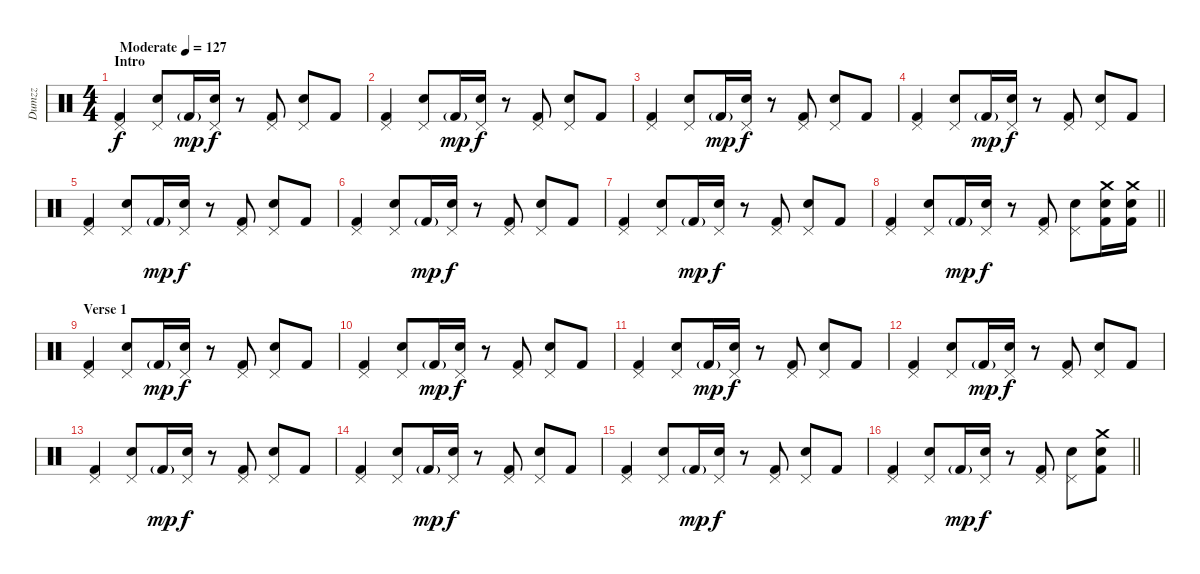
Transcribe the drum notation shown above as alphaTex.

\track ("Dumzz" "Dumzz") {instrument percussion}
\staff {score}
\articulation defaults
\ts (4 4)
\section ("" "Intro")
\tempo (127 "Moderate")
\clef neutral
\ks c
("Pedal Hi-Hat (hit)" "Kick (hit) 2").4{dy f} ("Pedal Hi-Hat (hit)" "Snare (hit) 2").8 "Kick (hit) 2"{g}.16{dy mp} ("Pedal Hi-Hat (hit)" "Snare (hit) 2").16{dy f} r.8 ("Pedal Hi-Hat (hit)" "Kick (hit) 2").8 ("Pedal Hi-Hat (hit)" "Snare (hit) 2").8 "Kick (hit) 2".8 |
("Pedal Hi-Hat (hit)" "Kick (hit) 2").4 ("Pedal Hi-Hat (hit)" "Snare (hit) 2").8 "Kick (hit) 2"{g}.16{dy mp} ("Pedal Hi-Hat (hit)" "Snare (hit) 2").16{dy f} r.8 ("Pedal Hi-Hat (hit)" "Kick (hit) 2").8 ("Pedal Hi-Hat (hit)" "Snare (hit) 2").8 "Kick (hit) 2".8 |
("Pedal Hi-Hat (hit)" "Kick (hit) 2").4 ("Pedal Hi-Hat (hit)" "Snare (hit) 2").8 "Kick (hit) 2"{g}.16{dy mp} ("Pedal Hi-Hat (hit)" "Snare (hit) 2").16{dy f} r.8 ("Pedal Hi-Hat (hit)" "Kick (hit) 2").8 ("Pedal Hi-Hat (hit)" "Snare (hit) 2").8 "Kick (hit) 2".8 |
("Pedal Hi-Hat (hit)" "Kick (hit) 2").4 ("Pedal Hi-Hat (hit)" "Snare (hit) 2").8 "Kick (hit) 2"{g}.16{dy mp} ("Pedal Hi-Hat (hit)" "Snare (hit) 2").16{dy f} r.8 ("Pedal Hi-Hat (hit)" "Kick (hit) 2").8 ("Pedal Hi-Hat (hit)" "Snare (hit) 2").8 "Kick (hit) 2".8 |
("Pedal Hi-Hat (hit)" "Kick (hit) 2").4 ("Pedal Hi-Hat (hit)" "Snare (hit) 2").8 "Kick (hit) 2"{g}.16{dy mp} ("Pedal Hi-Hat (hit)" "Snare (hit) 2").16{dy f} r.8 ("Pedal Hi-Hat (hit)" "Kick (hit) 2").8 ("Pedal Hi-Hat (hit)" "Snare (hit) 2").8 "Kick (hit) 2".8 |
("Pedal Hi-Hat (hit)" "Kick (hit) 2").4 ("Pedal Hi-Hat (hit)" "Snare (hit) 2").8 "Kick (hit) 2"{g}.16{dy mp} ("Pedal Hi-Hat (hit)" "Snare (hit) 2").16{dy f} r.8 ("Pedal Hi-Hat (hit)" "Kick (hit) 2").8 ("Pedal Hi-Hat (hit)" "Snare (hit) 2").8 "Kick (hit) 2".8 |
("Pedal Hi-Hat (hit)" "Kick (hit) 2").4 ("Pedal Hi-Hat (hit)" "Snare (hit) 2").8 "Kick (hit) 2"{g}.16{dy mp} ("Pedal Hi-Hat (hit)" "Snare (hit) 2").16{dy f} r.8 ("Pedal Hi-Hat (hit)" "Kick (hit) 2").8 ("Pedal Hi-Hat (hit)" "Snare (hit) 2").8 "Kick (hit) 2".8 |
\barLineRight lightlight
("Pedal Hi-Hat (hit)" "Kick (hit) 2").4 ("Pedal Hi-Hat (hit)" "Snare (hit) 2").8 "Kick (hit) 2"{g}.16{dy mp} ("Pedal Hi-Hat (hit)" "Snare (hit) 2").16{dy f} r.8 ("Pedal Hi-Hat (hit)" "Kick (hit) 2").8 ("Pedal Hi-Hat (hit)" "Snare (hit) 2").8 ("Crash medium (hit)" "Snare (hit) 2" "Kick (hit) 2").16 ("Crash medium (hit)" "Snare (hit) 2" "Kick (hit) 2").16 |
\section ("" "Verse 1")
("Pedal Hi-Hat (hit)" "Kick (hit) 2").4 ("Pedal Hi-Hat (hit)" "Snare (hit) 2").8 "Kick (hit) 2"{g}.16{dy mp} ("Pedal Hi-Hat (hit)" "Snare (hit) 2").16{dy f} r.8 ("Pedal Hi-Hat (hit)" "Kick (hit) 2").8 ("Pedal Hi-Hat (hit)" "Snare (hit) 2").8 "Kick (hit) 2".8 |
("Pedal Hi-Hat (hit)" "Kick (hit) 2").4 ("Pedal Hi-Hat (hit)" "Snare (hit) 2").8 "Kick (hit) 2"{g}.16{dy mp} ("Pedal Hi-Hat (hit)" "Snare (hit) 2").16{dy f} r.8 ("Pedal Hi-Hat (hit)" "Kick (hit) 2").8 ("Pedal Hi-Hat (hit)" "Snare (hit) 2").8 "Kick (hit) 2".8 |
("Pedal Hi-Hat (hit)" "Kick (hit) 2").4 ("Pedal Hi-Hat (hit)" "Snare (hit) 2").8 "Kick (hit) 2"{g}.16{dy mp} ("Pedal Hi-Hat (hit)" "Snare (hit) 2").16{dy f} r.8 ("Pedal Hi-Hat (hit)" "Kick (hit) 2").8 ("Pedal Hi-Hat (hit)" "Snare (hit) 2").8 "Kick (hit) 2".8 |
("Pedal Hi-Hat (hit)" "Kick (hit) 2").4 ("Pedal Hi-Hat (hit)" "Snare (hit) 2").8 "Kick (hit) 2"{g}.16{dy mp} ("Pedal Hi-Hat (hit)" "Snare (hit) 2").16{dy f} r.8 ("Pedal Hi-Hat (hit)" "Kick (hit) 2").8 ("Pedal Hi-Hat (hit)" "Snare (hit) 2").8 "Kick (hit) 2".8 |
("Pedal Hi-Hat (hit)" "Kick (hit) 2").4 ("Pedal Hi-Hat (hit)" "Snare (hit) 2").8 "Kick (hit) 2"{g}.16{dy mp} ("Pedal Hi-Hat (hit)" "Snare (hit) 2").16{dy f} r.8 ("Pedal Hi-Hat (hit)" "Kick (hit) 2").8 ("Pedal Hi-Hat (hit)" "Snare (hit) 2").8 "Kick (hit) 2".8 |
("Pedal Hi-Hat (hit)" "Kick (hit) 2").4 ("Pedal Hi-Hat (hit)" "Snare (hit) 2").8 "Kick (hit) 2"{g}.16{dy mp} ("Pedal Hi-Hat (hit)" "Snare (hit) 2").16{dy f} r.8 ("Pedal Hi-Hat (hit)" "Kick (hit) 2").8 ("Pedal Hi-Hat (hit)" "Snare (hit) 2").8 "Kick (hit) 2".8 |
("Pedal Hi-Hat (hit)" "Kick (hit) 2").4 ("Pedal Hi-Hat (hit)" "Snare (hit) 2").8 "Kick (hit) 2"{g}.16{dy mp} ("Pedal Hi-Hat (hit)" "Snare (hit) 2").16{dy f} r.8 ("Pedal Hi-Hat (hit)" "Kick (hit) 2").8 ("Pedal Hi-Hat (hit)" "Snare (hit) 2").8 "Kick (hit) 2".8 |
\barLineRight lightlight
("Pedal Hi-Hat (hit)" "Kick (hit) 2").4 ("Pedal Hi-Hat (hit)" "Snare (hit) 2").8 "Kick (hit) 2"{g}.16{dy mp} ("Pedal Hi-Hat (hit)" "Snare (hit) 2").16{dy f} r.8 ("Pedal Hi-Hat (hit)" "Kick (hit) 2").8 ("Pedal Hi-Hat (hit)" "Snare (hit) 2").8 ("Crash medium (hit)" "Snare (hit) 2" "Kick (hit) 2").8
